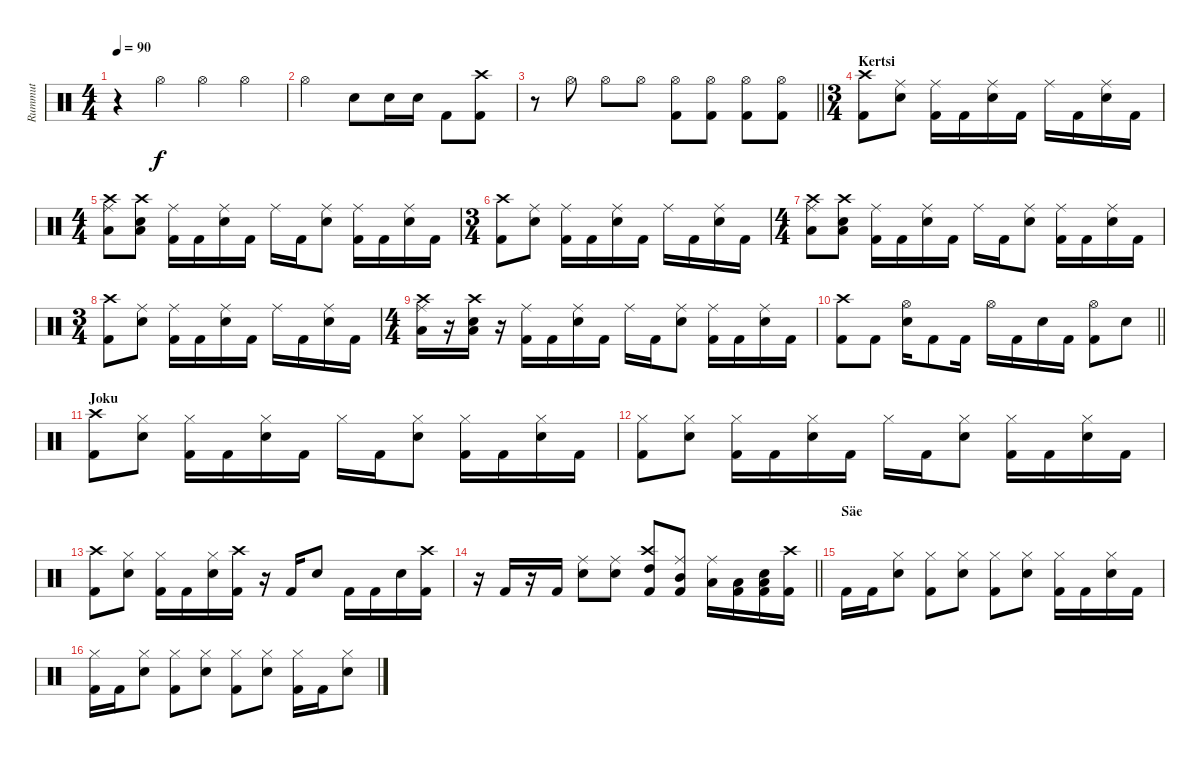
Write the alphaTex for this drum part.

\track ("Rummut" "Rummut") {instrument percussion}
\staff {score}
\articulation defaults
\ts (4 4)
\tempo 90
\clef neutral
\ks c
r.4{dy f} "Hi-Hat (open)".4 "Hi-Hat (open)".4 "Hi-Hat (open)".4 |
"Hi-Hat (open)".2 "Snare (hit) 2".8 "Snare (hit) 2".16 "Snare (hit) 2".16 "Kick (hit) 2".8 ("Kick (hit) 2" "Crash high (hit)").8 |
\barLineRight lightlight
r.8 "Hi-Hat (open)".8 "Hi-Hat (open)".8 "Hi-Hat (open)".8 ("Hi-Hat (open)" "Kick (hit) 2").8 ("Hi-Hat (open)" "Kick (hit) 2").8 ("Hi-Hat (open)" "Kick (hit) 2").8 ("Hi-Hat (open)" "Kick (hit) 2").8 |
\ts (3 4)
\section ("" "Kertsi")
("Crash high (hit)" "Kick (hit) 2").8 ("Ride (middle)" "Snare (hit) 2").8 ("Ride (middle)" "Kick (hit) 2").16 "Kick (hit) 2".16 ("Ride (middle)" "Snare (hit) 2").16 "Kick (hit) 2".16 "Ride (middle)".16 "Kick (hit) 2".16 ("Ride (middle)" "Snare (hit) 2").16 "Kick (hit) 2".16 |
\ts (4 4)
("Crash high (hit)" "Ride (middle)" "Low Floor Tom (hit)").8 ("Crash high (hit)" "Snare (hit) 2" "Low Floor Tom (hit)").8 ("Ride (middle)" "Kick (hit) 2").16 "Kick (hit) 2".16 ("Ride (middle)" "Snare (hit) 2").16 "Kick (hit) 2".16 "Ride (middle)".16 "Kick (hit) 2".16 ("Ride (middle)" "Snare (hit) 2").8 ("Ride (middle)" "Kick (hit) 2").16 "Kick (hit) 2".16 ("Ride (middle)" "Snare (hit) 2").16 "Kick (hit) 2".16 |
\ts (3 4)
("Crash high (hit)" "Kick (hit) 2").8 ("Ride (middle)" "Snare (hit) 2").8 ("Ride (middle)" "Kick (hit) 2").16 "Kick (hit) 2".16 ("Ride (middle)" "Snare (hit) 2").16 "Kick (hit) 2".16 "Ride (middle)".16 "Kick (hit) 2".16 ("Ride (middle)" "Snare (hit) 2").16 "Kick (hit) 2".16 |
\ts (4 4)
("Crash high (hit)" "Ride (middle)" "Low Floor Tom (hit)").8 ("Crash high (hit)" "Snare (hit) 2" "Low Floor Tom (hit)").8 ("Ride (middle)" "Kick (hit) 2").16 "Kick (hit) 2".16 ("Ride (middle)" "Snare (hit) 2").16 "Kick (hit) 2".16 "Ride (middle)".16 "Kick (hit) 2".16 ("Ride (middle)" "Snare (hit) 2").8 ("Ride (middle)" "Kick (hit) 2").16 "Kick (hit) 2".16 ("Ride (middle)" "Snare (hit) 2").16 "Kick (hit) 2".16 |
\ts (3 4)
("Crash high (hit)" "Kick (hit) 2").8 ("Ride (middle)" "Snare (hit) 2").8 ("Ride (middle)" "Kick (hit) 2").16 "Kick (hit) 2".16 ("Ride (middle)" "Snare (hit) 2").16 "Kick (hit) 2".16 "Ride (middle)".16 "Kick (hit) 2".16 ("Ride (middle)" "Snare (hit) 2").16 "Kick (hit) 2".16 |
\ts (4 4)
("Crash high (hit)" "Ride (middle)" "Low Floor Tom (hit)").16 r.16 ("Crash high (hit)" "Snare (hit) 2" "Low Floor Tom (hit)").16 r.16 ("Ride (middle)" "Kick (hit) 2").16 "Kick (hit) 2".16 ("Ride (middle)" "Snare (hit) 2").16 "Kick (hit) 2".16 "Ride (middle)".16 "Kick (hit) 2".16 ("Ride (middle)" "Snare (hit) 2").8 ("Ride (middle)" "Kick (hit) 2").16 "Kick (hit) 2".16 ("Ride (middle)" "Snare (hit) 2").16 "Kick (hit) 2".16 |
\barLineRight lightlight
("Crash high (hit)" "Kick (hit) 2").8 "Kick (hit) 2".8 ("Hi-Hat (open)" "Snare (hit) 2").16 "Kick (hit) 2".8 "Kick (hit) 2".16 "Hi-Hat (open)".16 "Kick (hit) 2".16 "Snare (hit) 2".16 "Kick (hit) 2".16 ("Hi-Hat (open)" "Kick (hit) 2").8 "Snare (hit) 2".8 |
\section ("" "Joku")
("Crash high (hit)" "Kick (hit) 2").8 ("Hi-Hat (closed)" "Snare (hit) 2").8 ("Hi-Hat (closed)" "Kick (hit) 2").16 "Kick (hit) 2".16 ("Hi-Hat (closed)" "Snare (hit) 2").16 "Kick (hit) 2".16 "Hi-Hat (closed)".16 "Kick (hit) 2".16 ("Hi-Hat (closed)" "Snare (hit) 2").8 ("Hi-Hat (closed)" "Kick (hit) 2").16 "Kick (hit) 2".16 ("Hi-Hat (closed)" "Snare (hit) 2").16 "Kick (hit) 2".16 |
("Hi-Hat (closed)" "Kick (hit) 2").8 ("Hi-Hat (closed)" "Snare (hit) 2").8 ("Hi-Hat (closed)" "Kick (hit) 2").16 "Kick (hit) 2".16 ("Hi-Hat (closed)" "Snare (hit) 2").16 "Kick (hit) 2".16 "Hi-Hat (closed)".16 "Kick (hit) 2".16 ("Hi-Hat (closed)" "Snare (hit) 2").8 ("Hi-Hat (closed)" "Kick (hit) 2").16 "Kick (hit) 2".16 ("Hi-Hat (closed)" "Snare (hit) 2").16 "Kick (hit) 2".16 |
("Crash high (hit)" "Kick (hit) 2").8 ("Hi-Hat (closed)" "Snare (hit) 2").8 ("Hi-Hat (closed)" "Kick (hit) 2").16 "Kick (hit) 2".16 ("Hi-Hat (closed)" "Snare (hit) 2").16 ("Crash high (hit)" "Kick (hit) 2").16 r.16 "Kick (hit) 2".16 "Snare (hit) 2".8 "Kick (hit) 2".16 "Kick (hit) 2".16 "Snare (hit) 2".16 ("Crash high (hit)" "Kick (hit) 2").16 |
\barLineRight lightlight
r.16 "Kick (hit) 2".16 r.16 "Kick (hit) 2".16 ("Ride (middle)" "Snare (hit) 2").8 ("Ride (middle)" "Snare (hit) 2").8 ("Crash high (hit)" "High Tom (hit)" "Kick (hit) 2").8 ("Ride (middle)" "Mid Tom (hit)" "Kick (hit) 2").8 ("Ride (middle)" "Low Tom (hit)").16 ("Low Tom (hit)" "Kick (hit) 2").16 ("Snare (hit) 2" "Low Tom (hit)" "Kick (hit) 2").16 ("Crash high (hit)" "Kick (hit) 2").16 |
\section ("" "Säe")
"Kick (hit) 2".16 "Kick (hit) 2".16 ("Hi-Hat (closed)" "Snare (hit) 2").8 ("Hi-Hat (closed)" "Kick (hit) 2").8 ("Hi-Hat (closed)" "Snare (hit) 2").8 ("Hi-Hat (closed)" "Kick (hit) 2").8 ("Hi-Hat (closed)" "Snare (hit) 2").8 ("Hi-Hat (closed)" "Kick (hit) 2").16 "Kick (hit) 2".16 ("Hi-Hat (closed)" "Snare (hit) 2").16 "Kick (hit) 2".16 |
("Hi-Hat (closed)" "Kick (hit) 2").16 "Kick (hit) 2".16 ("Hi-Hat (closed)" "Snare (hit) 2").8 ("Hi-Hat (closed)" "Kick (hit) 2").8 ("Hi-Hat (closed)" "Snare (hit) 2").8 ("Hi-Hat (closed)" "Kick (hit) 2").8 ("Hi-Hat (closed)" "Snare (hit) 2").8 ("Hi-Hat (closed)" "Kick (hit) 2").16 "Kick (hit) 2".16 ("Hi-Hat (closed)" "Snare (hit) 2").8
